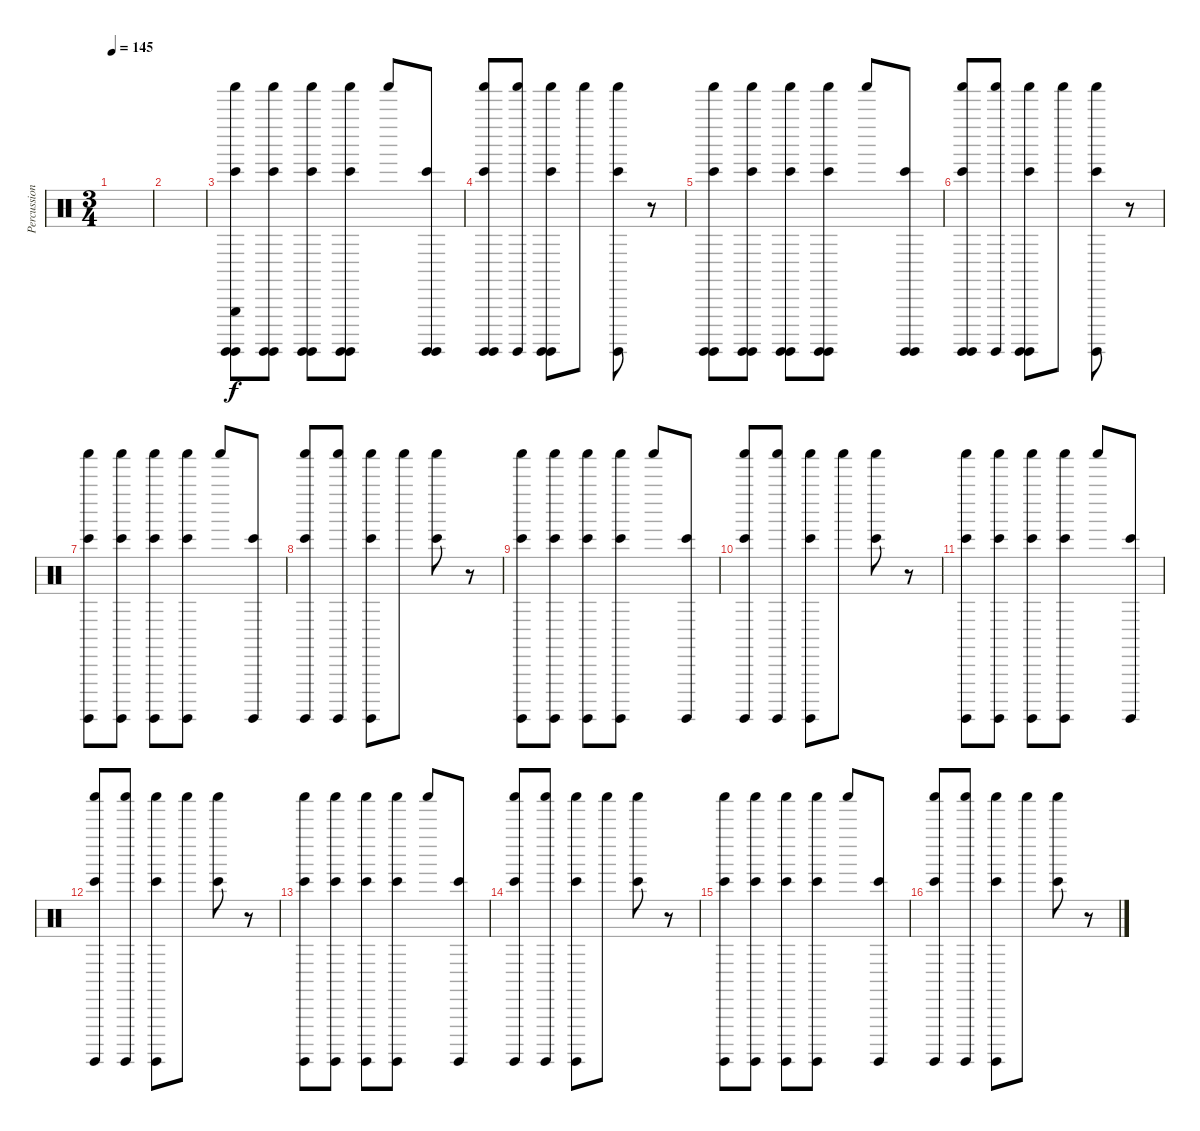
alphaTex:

\track ("Percussion" "Percussion") {instrument percussion}
\staff {score}
\articulation defaults
\ts (3 4)
\tempo 145
\clef neutral
\ks c
|
|
("Shaker (hit)" "Surdo (hit)" "Bongo High (hit)" "Surdo (hit)" "Triangle (hit)").8 ("Shaker (hit)" "Surdo (hit)" "Bongo High (hit)" "Surdo (hit)").8 ("Shaker (hit)" "Surdo (hit)" "Bongo High (hit)" "Surdo (hit)").8 ("Shaker (hit)" "Surdo (hit)" "Bongo High (hit)" "Surdo (hit)").8 "Shaker (hit)".8 ("Surdo (hit)" "Bongo High (hit)" "Surdo (hit)").8 |
("Shaker (hit)" "Surdo (hit)" "Bongo High (hit)" "Surdo (hit)").8 ("Shaker (hit)" "Surdo (hit)").8 ("Shaker (hit)" "Surdo (hit)" "Bongo High (hit)" "Surdo (hit)").8 "Shaker (hit)".8 ("Shaker (hit)" "Bongo High (hit)" "Surdo (hit)").8 r.8 |
("Shaker (hit)" "Surdo (hit)" "Bongo High (hit)" "Surdo (hit)").8 ("Shaker (hit)" "Surdo (hit)" "Bongo High (hit)" "Surdo (hit)").8 ("Shaker (hit)" "Surdo (hit)" "Bongo High (hit)" "Surdo (hit)").8 ("Shaker (hit)" "Surdo (hit)" "Bongo High (hit)" "Surdo (hit)").8 "Shaker (hit)".8 ("Surdo (hit)" "Bongo High (hit)" "Surdo (hit)").8 |
("Shaker (hit)" "Surdo (hit)" "Bongo High (hit)" "Surdo (hit)").8 ("Shaker (hit)" "Surdo (hit)").8 ("Shaker (hit)" "Surdo (hit)" "Bongo High (hit)" "Surdo (hit)").8 "Shaker (hit)".8 ("Shaker (hit)" "Bongo High (hit)" "Surdo (hit)").8 r.8 |
("Shaker (hit)" "Surdo (hit)" "Bongo High (hit)").8 ("Shaker (hit)" "Surdo (hit)" "Bongo High (hit)").8 ("Shaker (hit)" "Surdo (hit)" "Bongo High (hit)").8 ("Shaker (hit)" "Surdo (hit)" "Bongo High (hit)").8 "Shaker (hit)".8 ("Surdo (hit)" "Bongo High (hit)").8 |
("Shaker (hit)" "Surdo (hit)" "Bongo High (hit)").8 ("Shaker (hit)" "Surdo (hit)").8 ("Shaker (hit)" "Surdo (hit)" "Bongo High (hit)").8 "Shaker (hit)".8 ("Shaker (hit)" "Bongo High (hit)").8 r.8 |
("Shaker (hit)" "Surdo (hit)" "Bongo High (hit)").8 ("Shaker (hit)" "Surdo (hit)" "Bongo High (hit)").8 ("Shaker (hit)" "Surdo (hit)" "Bongo High (hit)").8 ("Shaker (hit)" "Surdo (hit)" "Bongo High (hit)").8 "Shaker (hit)".8 ("Surdo (hit)" "Bongo High (hit)").8 |
("Shaker (hit)" "Surdo (hit)" "Bongo High (hit)").8 ("Shaker (hit)" "Surdo (hit)").8 ("Shaker (hit)" "Surdo (hit)" "Bongo High (hit)").8 "Shaker (hit)".8 ("Shaker (hit)" "Bongo High (hit)").8 r.8 |
("Shaker (hit)" "Surdo (hit)" "Bongo High (hit)").8 ("Shaker (hit)" "Surdo (hit)" "Bongo High (hit)").8 ("Shaker (hit)" "Surdo (hit)" "Bongo High (hit)").8 ("Shaker (hit)" "Surdo (hit)" "Bongo High (hit)").8 "Shaker (hit)".8 ("Surdo (hit)" "Bongo High (hit)").8 |
("Shaker (hit)" "Surdo (hit)" "Bongo High (hit)").8 ("Shaker (hit)" "Surdo (hit)").8 ("Shaker (hit)" "Surdo (hit)" "Bongo High (hit)").8 "Shaker (hit)".8 ("Shaker (hit)" "Bongo High (hit)").8 r.8 |
("Shaker (hit)" "Surdo (hit)" "Bongo High (hit)").8 ("Shaker (hit)" "Surdo (hit)" "Bongo High (hit)").8 ("Shaker (hit)" "Surdo (hit)" "Bongo High (hit)").8 ("Shaker (hit)" "Surdo (hit)" "Bongo High (hit)").8 "Shaker (hit)".8 ("Surdo (hit)" "Bongo High (hit)").8 |
("Shaker (hit)" "Surdo (hit)" "Bongo High (hit)").8 ("Shaker (hit)" "Surdo (hit)").8 ("Shaker (hit)" "Surdo (hit)" "Bongo High (hit)").8 "Shaker (hit)".8 ("Shaker (hit)" "Bongo High (hit)").8 r.8 |
("Shaker (hit)" "Surdo (hit)" "Bongo High (hit)").8 ("Shaker (hit)" "Surdo (hit)" "Bongo High (hit)").8 ("Shaker (hit)" "Surdo (hit)" "Bongo High (hit)").8 ("Shaker (hit)" "Surdo (hit)" "Bongo High (hit)").8 "Shaker (hit)".8 ("Surdo (hit)" "Bongo High (hit)").8 |
("Shaker (hit)" "Surdo (hit)" "Bongo High (hit)").8 ("Shaker (hit)" "Surdo (hit)").8 ("Shaker (hit)" "Surdo (hit)" "Bongo High (hit)").8 "Shaker (hit)".8 ("Shaker (hit)" "Bongo High (hit)").8 r.8
